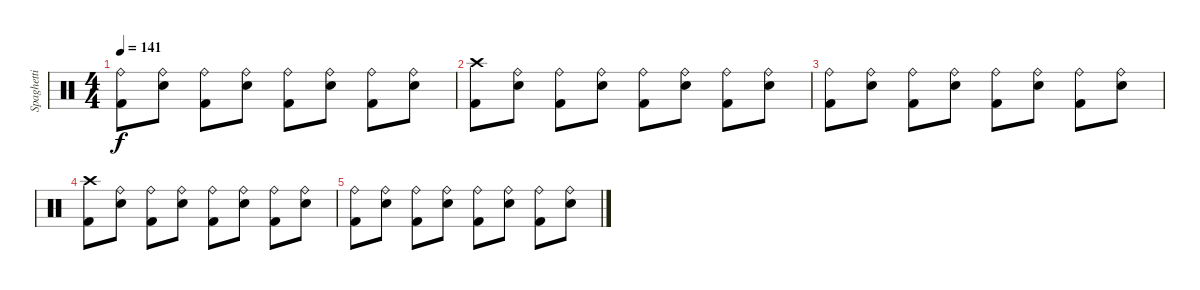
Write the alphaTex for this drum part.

\track ("Spaghetti" "Spaghetti") {instrument percussion}
\staff {score}
\articulation defaults
\ts (4 4)
\tempo 141
\clef neutral
\ks c
("Ride (bell)" "Kick (hit) 2").8{dy f} ("Ride (bell)" "Snare (hit) 2").8 ("Ride (bell)" "Kick (hit) 2").8 ("Ride (bell)" "Snare (hit) 2").8 ("Ride (bell)" "Kick (hit) 2").8 ("Ride (bell)" "Snare (hit) 2").8 ("Ride (bell)" "Kick (hit) 2").8 ("Ride (bell)" "Snare (hit) 2").8 |
("Crash high (hit)" "Kick (hit) 2").8 ("Ride (bell)" "Snare (hit) 2").8 ("Ride (bell)" "Kick (hit) 2").8 ("Ride (bell)" "Snare (hit) 2").8 ("Ride (bell)" "Kick (hit) 2").8 ("Ride (bell)" "Snare (hit) 2").8 ("Ride (bell)" "Kick (hit) 2").8 ("Ride (bell)" "Snare (hit) 2").8 |
("Ride (bell)" "Kick (hit) 2").8 ("Ride (bell)" "Snare (hit) 2").8 ("Ride (bell)" "Kick (hit) 2").8 ("Ride (bell)" "Snare (hit) 2").8 ("Ride (bell)" "Kick (hit) 2").8 ("Ride (bell)" "Snare (hit) 2").8 ("Ride (bell)" "Kick (hit) 2").8 ("Ride (bell)" "Snare (hit) 2").8 |
("Crash high (hit)" "Kick (hit) 2").8 ("Ride (bell)" "Snare (hit) 2").8 ("Ride (bell)" "Kick (hit) 2").8 ("Ride (bell)" "Snare (hit) 2").8 ("Ride (bell)" "Kick (hit) 2").8 ("Ride (bell)" "Snare (hit) 2").8 ("Ride (bell)" "Kick (hit) 2").8 ("Ride (bell)" "Snare (hit) 2").8 |
("Ride (bell)" "Kick (hit) 2").8 ("Ride (bell)" "Snare (hit) 2").8 ("Ride (bell)" "Kick (hit) 2").8 ("Ride (bell)" "Snare (hit) 2").8 ("Ride (bell)" "Kick (hit) 2").8 ("Ride (bell)" "Snare (hit) 2").8 ("Ride (bell)" "Kick (hit) 2").8 ("Ride (bell)" "Snare (hit) 2").8
